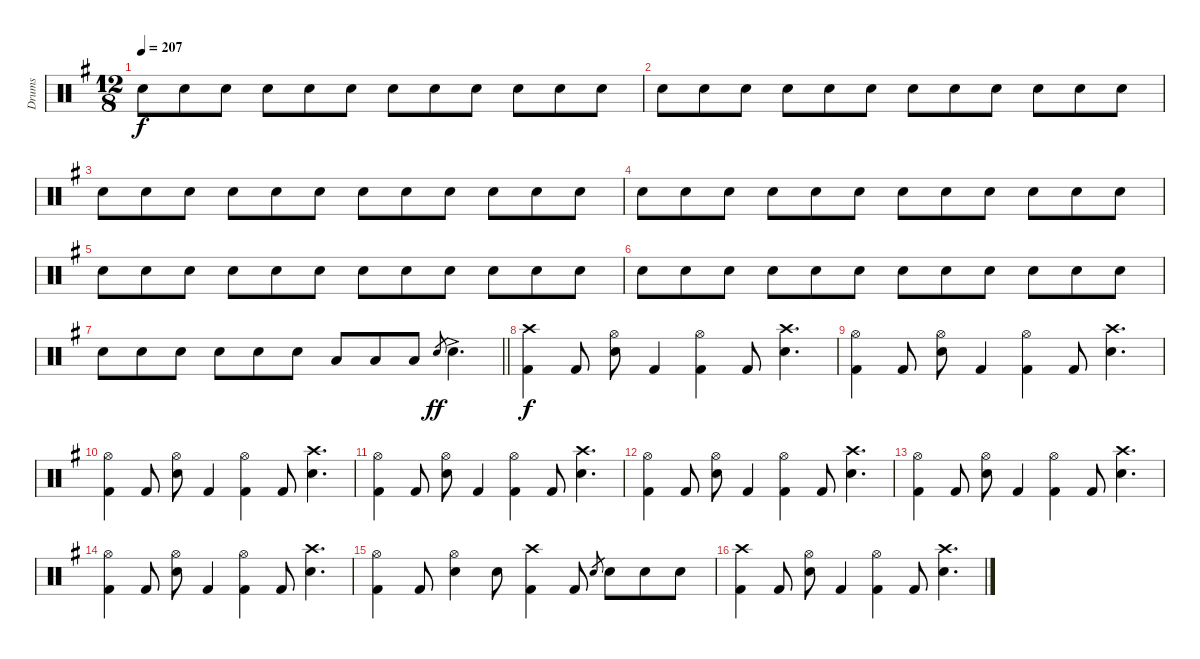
\track ("Drums" "Drums") {instrument percussion}
\staff {score}
\articulation defaults
\ts (12 8)
\tempo 207
\clef neutral
\ks g "Electric Snare (hit)".8{dy f} "Electric Snare (hit)".8 "Electric Snare (hit)".8 "Electric Snare (hit)".8 "Electric Snare (hit)".8 "Electric Snare (hit)".8 "Electric Snare (hit)".8 "Electric Snare (hit)".8 "Electric Snare (hit)".8 "Electric Snare (hit)".8 "Electric Snare (hit)".8 "Electric Snare (hit)".8
|
"Electric Snare (hit)".8{volume 10} "Electric Snare (hit)".8 "Electric Snare (hit)".8 "Electric Snare (hit)".8 "Electric Snare (hit)".8 "Electric Snare (hit)".8 "Electric Snare (hit)".8 "Electric Snare (hit)".8 "Electric Snare (hit)".8 "Electric Snare (hit)".8 "Electric Snare (hit)".8 "Electric Snare (hit)".8 |
"Electric Snare (hit)".8 "Electric Snare (hit)".8 "Electric Snare (hit)".8 "Electric Snare (hit)".8 "Electric Snare (hit)".8 "Electric Snare (hit)".8 "Electric Snare (hit)".8 "Electric Snare (hit)".8 "Electric Snare (hit)".8 "Electric Snare (hit)".8 "Electric Snare (hit)".8 "Electric Snare (hit)".8 |
"Electric Snare (hit)".8{volume 11} "Electric Snare (hit)".8 "Electric Snare (hit)".8 "Electric Snare (hit)".8 "Electric Snare (hit)".8 "Electric Snare (hit)".8 "Electric Snare (hit)".8 "Electric Snare (hit)".8 "Electric Snare (hit)".8 "Electric Snare (hit)".8 "Electric Snare (hit)".8 "Electric Snare (hit)".8 |
"Electric Snare (hit)".8 "Electric Snare (hit)".8 "Electric Snare (hit)".8 "Electric Snare (hit)".8 "Electric Snare (hit)".8 "Electric Snare (hit)".8 "Electric Snare (hit)".8 "Electric Snare (hit)".8 "Electric Snare (hit)".8 "Electric Snare (hit)".8 "Electric Snare (hit)".8 "Electric Snare (hit)".8 |
"Electric Snare (hit)".8{volume 12} "Electric Snare (hit)".8 "Electric Snare (hit)".8 "Electric Snare (hit)".8 "Electric Snare (hit)".8 "Electric Snare (hit)".8 "Electric Snare (hit)".8 "Electric Snare (hit)".8 "Electric Snare (hit)".8 "Electric Snare (hit)".8 "Electric Snare (hit)".8 "Electric Snare (hit)".8 |
\barLineRight lightlight "Electric Snare (hit)".8{volume 14} "Electric Snare (hit)".8 "Electric Snare (hit)".8 "Electric Snare (hit)".8 "Electric Snare (hit)".8 "Electric Snare (hit)".8 "Low Tom (hit)".8 "Low Tom (hit)".8 "Low Tom (hit)".8 "Electric Snare (hit)".8{gr dy ff} "Electric Snare (hit)"{ac}.4{d}
|
\section ("" "")
("Crash high (hit)" "Kick (hit) 2").4{dy f} "Kick (hit) 2".8 ("Hi-Hat (open)" "Electric Snare (hit)").8 "Kick (hit) 2".4 ("Hi-Hat (open)" "Kick (hit) 2").4 "Kick (hit) 2".8 ("Crash high (hit)" "Electric Snare (hit)").4{d} |
("Hi-Hat (open)" "Kick (hit) 2").4 "Kick (hit) 2".8 ("Hi-Hat (open)" "Electric Snare (hit)").8 "Kick (hit) 2".4 ("Hi-Hat (open)" "Kick (hit) 2").4 "Kick (hit) 2".8 ("Crash high (hit)" "Electric Snare (hit)").4{d} |
("Hi-Hat (open)" "Kick (hit) 2").4 "Kick (hit) 2".8 ("Hi-Hat (open)" "Electric Snare (hit)").8 "Kick (hit) 2".4 ("Hi-Hat (open)" "Kick (hit) 2").4 "Kick (hit) 2".8 ("Crash high (hit)" "Electric Snare (hit)").4{d} |
("Hi-Hat (open)" "Kick (hit) 2").4 "Kick (hit) 2".8 ("Hi-Hat (open)" "Electric Snare (hit)").8 "Kick (hit) 2".4 ("Hi-Hat (open)" "Kick (hit) 2").4 "Kick (hit) 2".8 ("Crash high (hit)" "Electric Snare (hit)").4{d} |
("Hi-Hat (open)" "Kick (hit) 2").4 "Kick (hit) 2".8 ("Hi-Hat (open)" "Electric Snare (hit)").8 "Kick (hit) 2".4 ("Hi-Hat (open)" "Kick (hit) 2").4 "Kick (hit) 2".8 ("Crash high (hit)" "Electric Snare (hit)").4{d} |
("Hi-Hat (open)" "Kick (hit) 2").4 "Kick (hit) 2".8 ("Hi-Hat (open)" "Electric Snare (hit)").8 "Kick (hit) 2".4 ("Hi-Hat (open)" "Kick (hit) 2").4 "Kick (hit) 2".8 ("Crash high (hit)" "Electric Snare (hit)").4{d} |
("Hi-Hat (open)" "Kick (hit) 2").4 "Kick (hit) 2".8 ("Hi-Hat (open)" "Electric Snare (hit)").8 "Kick (hit) 2".4 ("Hi-Hat (open)" "Kick (hit) 2").4 "Kick (hit) 2".8 ("Crash high (hit)" "Electric Snare (hit)").4{d} |
("Hi-Hat (open)" "Kick (hit) 2").4 "Kick (hit) 2".8 ("Hi-Hat (open)" "Electric Snare (hit)").4 "Electric Snare (hit)".8 ("Crash high (hit)" "Kick (hit) 2").4 "Kick (hit) 2".8 "Electric Snare (hit)".8{gr} "Electric Snare (hit)".8 "Electric Snare (hit)".8 "Electric Snare (hit)".8 |
("Crash high (hit)" "Kick (hit) 2").4 "Kick (hit) 2".8 ("Hi-Hat (open)" "Electric Snare (hit)").8 "Kick (hit) 2".4 ("Hi-Hat (open)" "Kick (hit) 2").4 "Kick (hit) 2".8 ("Crash high (hit)" "Electric Snare (hit)").4{d}
